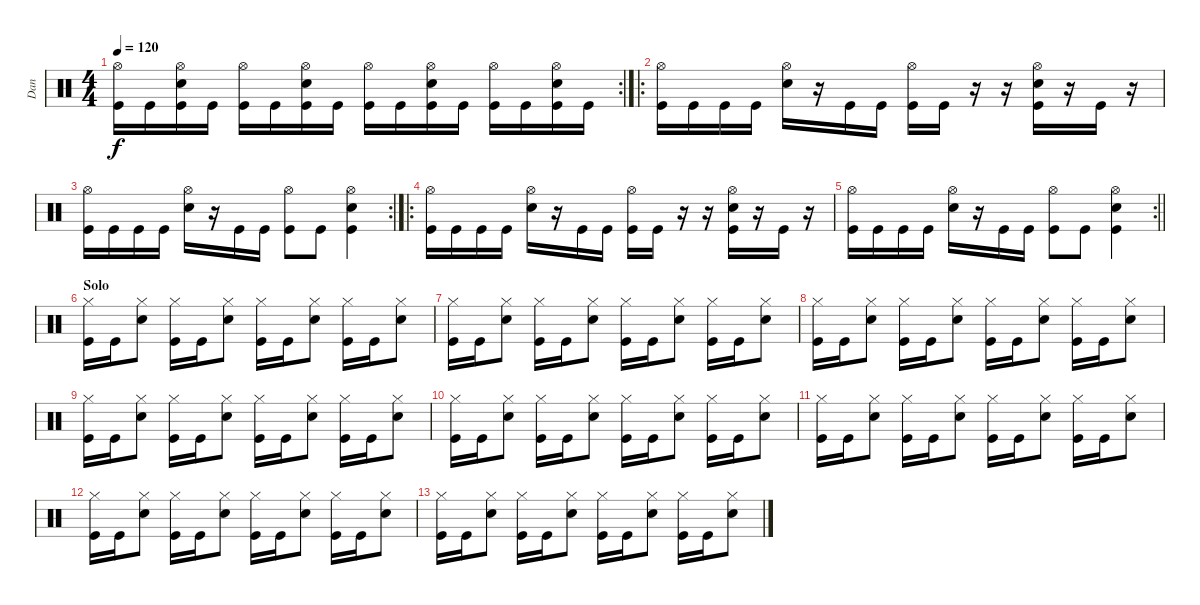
\track ("Dan" "Dan") {instrument percussion}
\staff {score}
\articulation defaults
\rc 2
\ts (4 4)
\tempo 120
\clef neutral
\ks c
("Hi-Hat (open)" "Kick (hit)").16{dy f} "Kick (hit)".16 ("Hi-Hat (open)" "Snare (hit) 2" "Kick (hit)").16 "Kick (hit)".16 ("Hi-Hat (open)" "Kick (hit)").16 "Kick (hit)".16 ("Hi-Hat (open)" "Snare (hit) 2" "Kick (hit)").16 "Kick (hit)".16 ("Hi-Hat (open)" "Kick (hit)").16 "Kick (hit)".16 ("Hi-Hat (open)" "Snare (hit) 2" "Kick (hit)").16 "Kick (hit)".16 ("Hi-Hat (open)" "Kick (hit)").16 "Kick (hit)".16 ("Hi-Hat (open)" "Snare (hit) 2" "Kick (hit)").16 "Kick (hit)".16 |
\ro
("Hi-Hat (open)" "Kick (hit)").16 "Kick (hit)".16 "Kick (hit)".16 "Kick (hit)".16 ("Hi-Hat (open)" "Snare (hit) 2").16 r.16 "Kick (hit)".16 "Kick (hit)".16 ("Hi-Hat (open)" "Kick (hit)").16 "Kick (hit)".16 r.16 r.16 ("Hi-Hat (open)" "Snare (hit) 2" "Kick (hit)").16 r.16 "Kick (hit)".16 r.16 |
\rc 2
("Hi-Hat (open)" "Kick (hit)").16 "Kick (hit)".16 "Kick (hit)".16 "Kick (hit)".16 ("Hi-Hat (open)" "Snare (hit) 2").16 r.16 "Kick (hit)".16 "Kick (hit)".16 ("Hi-Hat (open)" "Kick (hit)").8 "Kick (hit)".8 ("Hi-Hat (open)" "Snare (hit) 2" "Kick (hit)").4 |
\ro
("Hi-Hat (open)" "Kick (hit)").16 "Kick (hit)".16 "Kick (hit)".16 "Kick (hit)".16 ("Hi-Hat (open)" "Snare (hit) 2").16 r.16 "Kick (hit)".16 "Kick (hit)".16 ("Hi-Hat (open)" "Kick (hit)").16 "Kick (hit)".16 r.16 r.16 ("Hi-Hat (open)" "Snare (hit) 2" "Kick (hit)").16 r.16 "Kick (hit)".16 r.16 |
\rc 2
\barLineRight lightlight
("Hi-Hat (open)" "Kick (hit)").16 "Kick (hit)".16 "Kick (hit)".16 "Kick (hit)".16 ("Hi-Hat (open)" "Snare (hit) 2").16 r.16 "Kick (hit)".16 "Kick (hit)".16 ("Hi-Hat (open)" "Kick (hit)").8 "Kick (hit)".8 ("Hi-Hat (open)" "Snare (hit) 2" "Kick (hit)").4 |
\section ("" "Solo")
("Hi-Hat (closed)" "Kick (hit)").16 "Kick (hit)".16 ("Hi-Hat (closed)" "Snare (hit) 2").8 ("Hi-Hat (closed)" "Kick (hit)").16 "Kick (hit)".16 ("Hi-Hat (closed)" "Snare (hit) 2").8 ("Hi-Hat (closed)" "Kick (hit)").16 "Kick (hit)".16 ("Hi-Hat (closed)" "Snare (hit) 2").8 ("Hi-Hat (closed)" "Kick (hit)").16 "Kick (hit)".16 ("Hi-Hat (closed)" "Snare (hit) 2").8 |
("Hi-Hat (closed)" "Kick (hit)").16 "Kick (hit)".16 ("Hi-Hat (closed)" "Snare (hit) 2").8 ("Hi-Hat (closed)" "Kick (hit)").16 "Kick (hit)".16 ("Hi-Hat (closed)" "Snare (hit) 2").8 ("Hi-Hat (closed)" "Kick (hit)").16 "Kick (hit)".16 ("Hi-Hat (closed)" "Snare (hit) 2").8 ("Hi-Hat (closed)" "Kick (hit)").16 "Kick (hit)".16 ("Hi-Hat (closed)" "Snare (hit) 2").8 |
("Hi-Hat (closed)" "Kick (hit)").16 "Kick (hit)".16 ("Hi-Hat (closed)" "Snare (hit) 2").8 ("Hi-Hat (closed)" "Kick (hit)").16 "Kick (hit)".16 ("Hi-Hat (closed)" "Snare (hit) 2").8 ("Hi-Hat (closed)" "Kick (hit)").16 "Kick (hit)".16 ("Hi-Hat (closed)" "Snare (hit) 2").8 ("Hi-Hat (closed)" "Kick (hit)").16 "Kick (hit)".16 ("Hi-Hat (closed)" "Snare (hit) 2").8 |
("Hi-Hat (closed)" "Kick (hit)").16 "Kick (hit)".16 ("Hi-Hat (closed)" "Snare (hit) 2").8 ("Hi-Hat (closed)" "Kick (hit)").16 "Kick (hit)".16 ("Hi-Hat (closed)" "Snare (hit) 2").8 ("Hi-Hat (closed)" "Kick (hit)").16 "Kick (hit)".16 ("Hi-Hat (closed)" "Snare (hit) 2").8 ("Hi-Hat (closed)" "Kick (hit)").16 "Kick (hit)".16 ("Hi-Hat (closed)" "Snare (hit) 2").8 |
("Hi-Hat (closed)" "Kick (hit)").16 "Kick (hit)".16 ("Hi-Hat (closed)" "Snare (hit) 2").8 ("Hi-Hat (closed)" "Kick (hit)").16 "Kick (hit)".16 ("Hi-Hat (closed)" "Snare (hit) 2").8 ("Hi-Hat (closed)" "Kick (hit)").16 "Kick (hit)".16 ("Hi-Hat (closed)" "Snare (hit) 2").8 ("Hi-Hat (closed)" "Kick (hit)").16 "Kick (hit)".16 ("Hi-Hat (closed)" "Snare (hit) 2").8 |
("Hi-Hat (closed)" "Kick (hit)").16 "Kick (hit)".16 ("Hi-Hat (closed)" "Snare (hit) 2").8 ("Hi-Hat (closed)" "Kick (hit)").16 "Kick (hit)".16 ("Hi-Hat (closed)" "Snare (hit) 2").8 ("Hi-Hat (closed)" "Kick (hit)").16 "Kick (hit)".16 ("Hi-Hat (closed)" "Snare (hit) 2").8 ("Hi-Hat (closed)" "Kick (hit)").16 "Kick (hit)".16 ("Hi-Hat (closed)" "Snare (hit) 2").8 |
("Hi-Hat (closed)" "Kick (hit)").16 "Kick (hit)".16 ("Hi-Hat (closed)" "Snare (hit) 2").8 ("Hi-Hat (closed)" "Kick (hit)").16 "Kick (hit)".16 ("Hi-Hat (closed)" "Snare (hit) 2").8 ("Hi-Hat (closed)" "Kick (hit)").16 "Kick (hit)".16 ("Hi-Hat (closed)" "Snare (hit) 2").8 ("Hi-Hat (closed)" "Kick (hit)").16 "Kick (hit)".16 ("Hi-Hat (closed)" "Snare (hit) 2").8 |
("Hi-Hat (closed)" "Kick (hit)").16 "Kick (hit)".16 ("Hi-Hat (closed)" "Snare (hit) 2").8 ("Hi-Hat (closed)" "Kick (hit)").16 "Kick (hit)".16 ("Hi-Hat (closed)" "Snare (hit) 2").8 ("Hi-Hat (closed)" "Kick (hit)").16 "Kick (hit)".16 ("Hi-Hat (closed)" "Snare (hit) 2").8 ("Hi-Hat (closed)" "Kick (hit)").16 "Kick (hit)".16 ("Hi-Hat (closed)" "Snare (hit) 2").8
